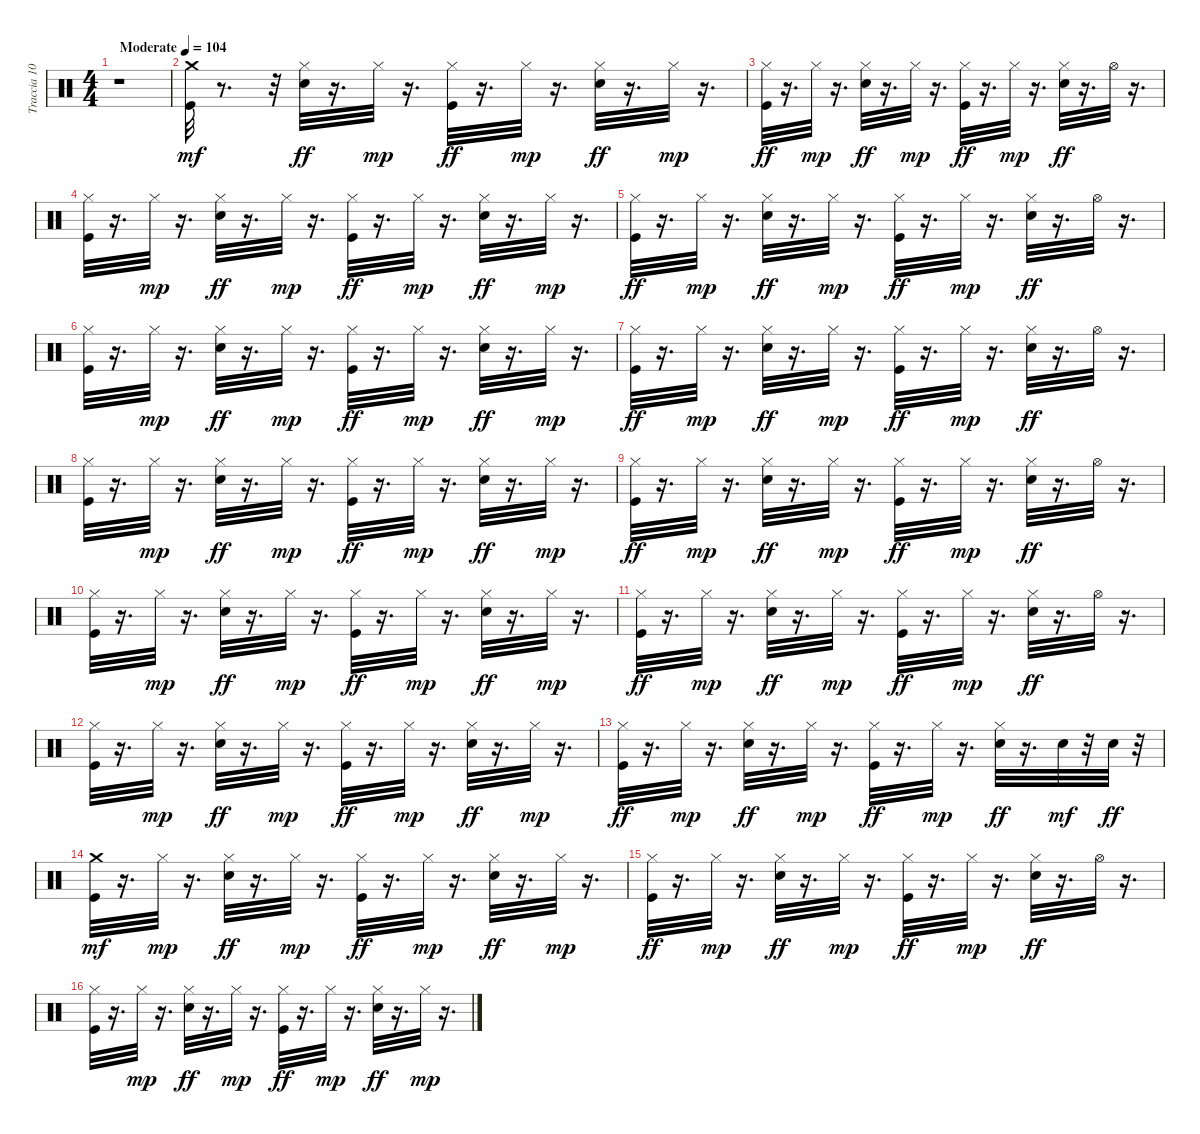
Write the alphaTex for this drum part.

\track ("Traccia 10" "Traccia 10") {instrument percussion}
\staff {score}
\articulation defaults
\ts (4 4)
\tempo (104 "Moderate")
\clef neutral
\ks c
r.1{dy mf} |
("Kick (hit)" "Crash medium (hit)").32 r.8{d} r.32 ("Snare (hit) 2" "Hi-Hat (closed)").32{dy ff} r.16{d} "Hi-Hat (closed)".32{dy mp} r.16{d} ("Kick (hit)" "Hi-Hat (closed)").32{dy ff} r.16{d} "Hi-Hat (closed)".32{dy mp} r.16{d} ("Snare (hit) 2" "Hi-Hat (closed)").32{dy ff} r.16{d} "Hi-Hat (closed)".32{dy mp} r.16{d} |
("Kick (hit)" "Hi-Hat (closed)").32{dy ff} r.16{d} "Hi-Hat (closed)".32{dy mp} r.16{d} ("Snare (hit) 2" "Hi-Hat (closed)").32{dy ff} r.16{d} "Hi-Hat (closed)".32{dy mp} r.16{d} ("Kick (hit)" "Hi-Hat (closed)").32{dy ff} r.16{d} "Hi-Hat (closed)".32{dy mp} r.16{d} ("Snare (hit) 2" "Hi-Hat (closed)").32{dy ff} r.16{d} "Hi-Hat (open)".32 r.16{d} |
("Kick (hit)" "Hi-Hat (closed)").32 r.16{d} "Hi-Hat (closed)".32{dy mp} r.16{d} ("Snare (hit) 2" "Hi-Hat (closed)").32{dy ff} r.16{d} "Hi-Hat (closed)".32{dy mp} r.16{d} ("Kick (hit)" "Hi-Hat (closed)").32{dy ff} r.16{d} "Hi-Hat (closed)".32{dy mp} r.16{d} ("Snare (hit) 2" "Hi-Hat (closed)").32{dy ff} r.16{d} "Hi-Hat (closed)".32{dy mp} r.16{d} |
("Kick (hit)" "Hi-Hat (closed)").32{dy ff} r.16{d} "Hi-Hat (closed)".32{dy mp} r.16{d} ("Snare (hit) 2" "Hi-Hat (closed)").32{dy ff} r.16{d} "Hi-Hat (closed)".32{dy mp} r.16{d} ("Kick (hit)" "Hi-Hat (closed)").32{dy ff} r.16{d} "Hi-Hat (closed)".32{dy mp} r.16{d} ("Snare (hit) 2" "Hi-Hat (closed)").32{dy ff} r.16{d} "Hi-Hat (open)".32 r.16{d} |
("Kick (hit)" "Hi-Hat (closed)").32 r.16{d} "Hi-Hat (closed)".32{dy mp} r.16{d} ("Snare (hit) 2" "Hi-Hat (closed)").32{dy ff} r.16{d} "Hi-Hat (closed)".32{dy mp} r.16{d} ("Kick (hit)" "Hi-Hat (closed)").32{dy ff} r.16{d} "Hi-Hat (closed)".32{dy mp} r.16{d} ("Snare (hit) 2" "Hi-Hat (closed)").32{dy ff} r.16{d} "Hi-Hat (closed)".32{dy mp} r.16{d} |
("Kick (hit)" "Hi-Hat (closed)").32{dy ff} r.16{d} "Hi-Hat (closed)".32{dy mp} r.16{d} ("Snare (hit) 2" "Hi-Hat (closed)").32{dy ff} r.16{d} "Hi-Hat (closed)".32{dy mp} r.16{d} ("Kick (hit)" "Hi-Hat (closed)").32{dy ff} r.16{d} "Hi-Hat (closed)".32{dy mp} r.16{d} ("Snare (hit) 2" "Hi-Hat (closed)").32{dy ff} r.16{d} "Hi-Hat (open)".32 r.16{d} |
("Kick (hit)" "Hi-Hat (closed)").32 r.16{d} "Hi-Hat (closed)".32{dy mp} r.16{d} ("Snare (hit) 2" "Hi-Hat (closed)").32{dy ff} r.16{d} "Hi-Hat (closed)".32{dy mp} r.16{d} ("Kick (hit)" "Hi-Hat (closed)").32{dy ff} r.16{d} "Hi-Hat (closed)".32{dy mp} r.16{d} ("Snare (hit) 2" "Hi-Hat (closed)").32{dy ff} r.16{d} "Hi-Hat (closed)".32{dy mp} r.16{d} |
("Kick (hit)" "Hi-Hat (closed)").32{dy ff} r.16{d} "Hi-Hat (closed)".32{dy mp} r.16{d} ("Snare (hit) 2" "Hi-Hat (closed)").32{dy ff} r.16{d} "Hi-Hat (closed)".32{dy mp} r.16{d} ("Kick (hit)" "Hi-Hat (closed)").32{dy ff} r.16{d} "Hi-Hat (closed)".32{dy mp} r.16{d} ("Snare (hit) 2" "Hi-Hat (closed)").32{dy ff} r.16{d} "Hi-Hat (open)".32 r.16{d} |
("Kick (hit)" "Hi-Hat (closed)").32 r.16{d} "Hi-Hat (closed)".32{dy mp} r.16{d} ("Snare (hit) 2" "Hi-Hat (closed)").32{dy ff} r.16{d} "Hi-Hat (closed)".32{dy mp} r.16{d} ("Kick (hit)" "Hi-Hat (closed)").32{dy ff} r.16{d} "Hi-Hat (closed)".32{dy mp} r.16{d} ("Snare (hit) 2" "Hi-Hat (closed)").32{dy ff} r.16{d} "Hi-Hat (closed)".32{dy mp} r.16{d} |
("Kick (hit)" "Hi-Hat (closed)").32{dy ff} r.16{d} "Hi-Hat (closed)".32{dy mp} r.16{d} ("Snare (hit) 2" "Hi-Hat (closed)").32{dy ff} r.16{d} "Hi-Hat (closed)".32{dy mp} r.16{d} ("Kick (hit)" "Hi-Hat (closed)").32{dy ff} r.16{d} "Hi-Hat (closed)".32{dy mp} r.16{d} ("Snare (hit) 2" "Hi-Hat (closed)").32{dy ff} r.16{d} "Hi-Hat (open)".32 r.16{d} |
("Kick (hit)" "Hi-Hat (closed)").32 r.16{d} "Hi-Hat (closed)".32{dy mp} r.16{d} ("Snare (hit) 2" "Hi-Hat (closed)").32{dy ff} r.16{d} "Hi-Hat (closed)".32{dy mp} r.16{d} ("Kick (hit)" "Hi-Hat (closed)").32{dy ff} r.16{d} "Hi-Hat (closed)".32{dy mp} r.16{d} ("Snare (hit) 2" "Hi-Hat (closed)").32{dy ff} r.16{d} "Hi-Hat (closed)".32{dy mp} r.16{d} |
("Kick (hit)" "Hi-Hat (closed)").32{dy ff} r.16{d} "Hi-Hat (closed)".32{dy mp} r.16{d} ("Snare (hit) 2" "Hi-Hat (closed)").32{dy ff} r.16{d} "Hi-Hat (closed)".32{dy mp} r.16{d} ("Kick (hit)" "Hi-Hat (closed)").32{dy ff} r.16{d} "Hi-Hat (closed)".32{dy mp} r.16{d} ("Snare (hit) 2" "Hi-Hat (closed)").32{dy ff} r.16{d} "Snare (hit) 2".32{dy mf} r.32 "Snare (hit) 2".32{dy ff} r.32 |
("Kick (hit)" "Crash medium (hit)").32{dy mf} r.16{d} "Hi-Hat (closed)".32{dy mp} r.16{d} ("Snare (hit) 2" "Hi-Hat (closed)").32{dy ff} r.16{d} "Hi-Hat (closed)".32{dy mp} r.16{d} ("Kick (hit)" "Hi-Hat (closed)").32{dy ff} r.16{d} "Hi-Hat (closed)".32{dy mp} r.16{d} ("Snare (hit) 2" "Hi-Hat (closed)").32{dy ff} r.16{d} "Hi-Hat (closed)".32{dy mp} r.16{d} |
("Kick (hit)" "Hi-Hat (closed)").32{dy ff} r.16{d} "Hi-Hat (closed)".32{dy mp} r.16{d} ("Snare (hit) 2" "Hi-Hat (closed)").32{dy ff} r.16{d} "Hi-Hat (closed)".32{dy mp} r.16{d} ("Kick (hit)" "Hi-Hat (closed)").32{dy ff} r.16{d} "Hi-Hat (closed)".32{dy mp} r.16{d} ("Snare (hit) 2" "Hi-Hat (closed)").32{dy ff} r.16{d} "Hi-Hat (open)".32 r.16{d} |
("Kick (hit)" "Hi-Hat (closed)").32 r.16{d} "Hi-Hat (closed)".32{dy mp} r.16{d} ("Snare (hit) 2" "Hi-Hat (closed)").32{dy ff} r.16{d} "Hi-Hat (closed)".32{dy mp} r.16{d} ("Kick (hit)" "Hi-Hat (closed)").32{dy ff} r.16{d} "Hi-Hat (closed)".32{dy mp} r.16{d} ("Snare (hit) 2" "Hi-Hat (closed)").32{dy ff} r.16{d} "Hi-Hat (closed)".32{dy mp} r.16{d}
